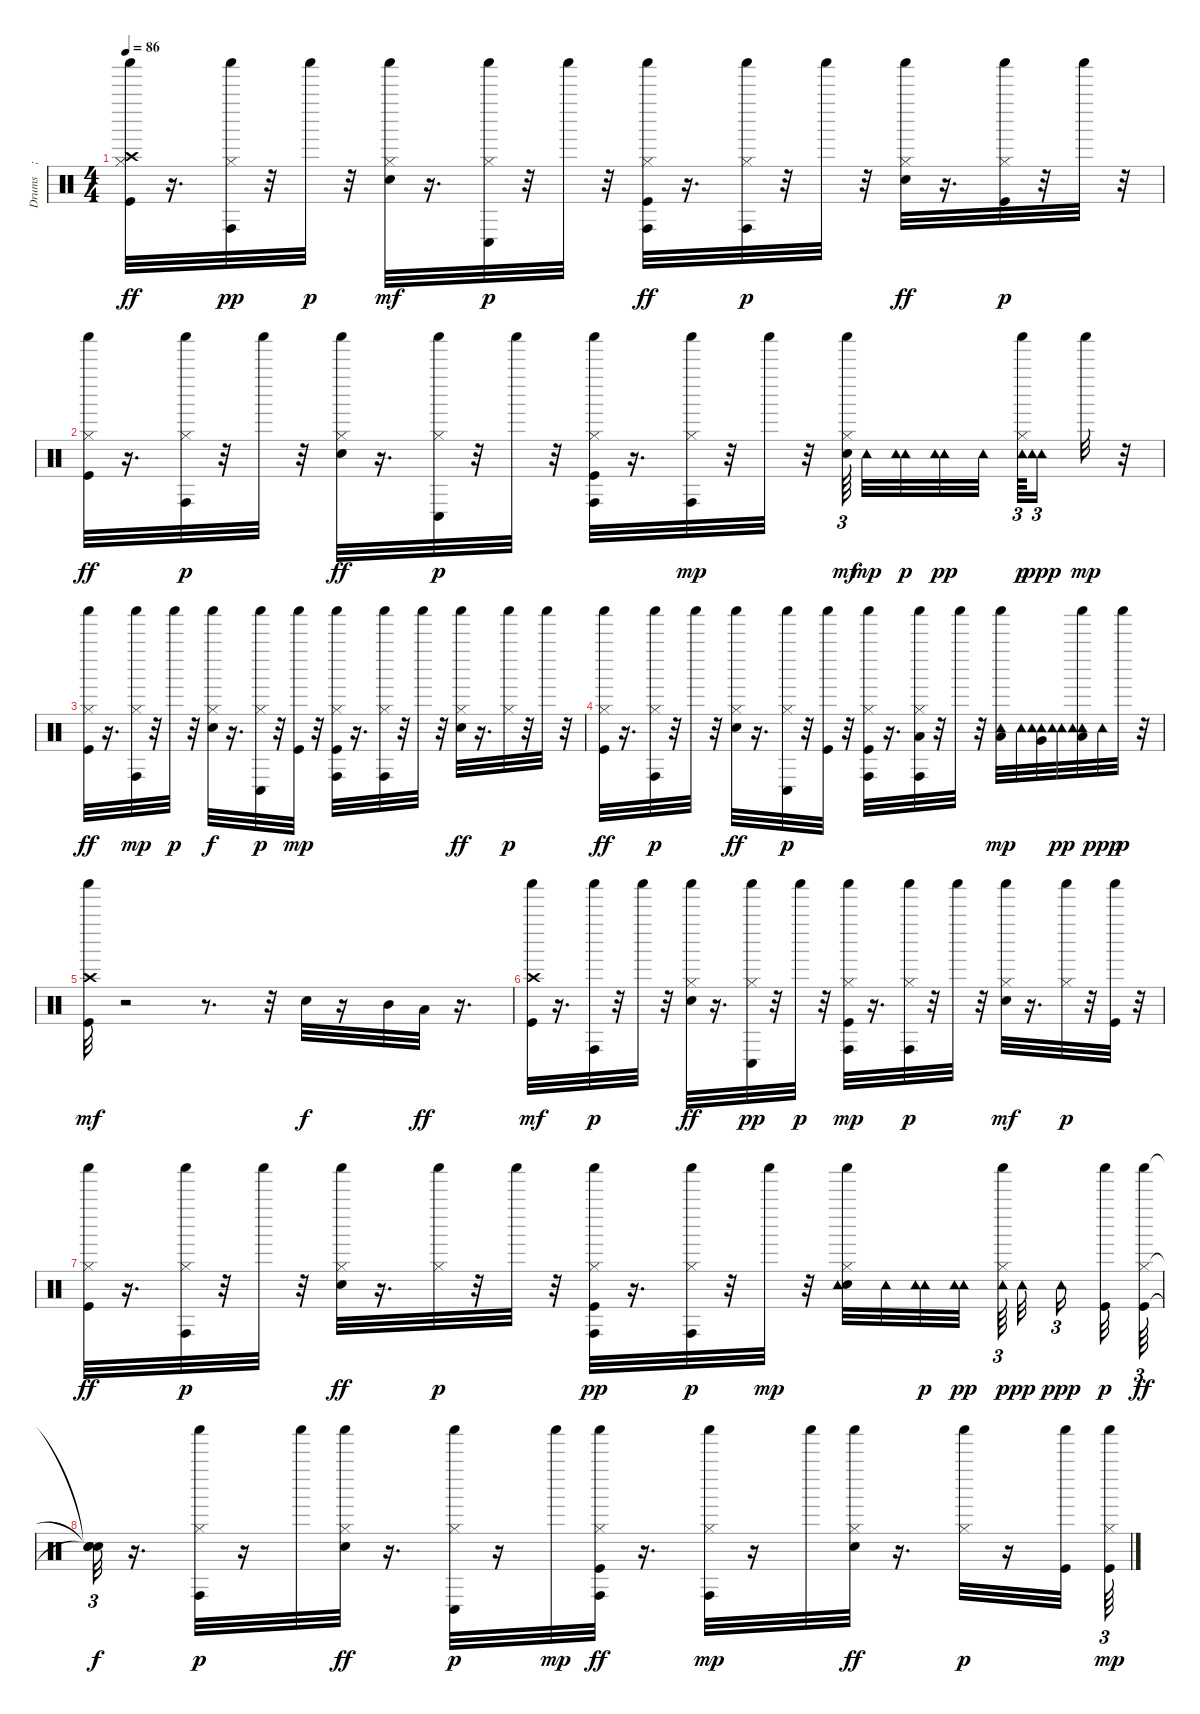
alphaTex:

\track ("Drums    ; Standard" "Drums    ;") {instrument percussion}
\staff {score}
\articulation defaults
\ts (4 4)
\tempo 86
\clef neutral
\ks c
("Crash high (hit)" "Shaker (hit)" "Kick (hit)" "Hi-Hat (closed)").32{dy ff} r.16{d} ("Hi-Hat (closed)" "Conga high (hit)" "Shaker (hit)").32{dy pp} r.32 "Shaker (hit)".32{dy p} r.32 ("Electric Snare (hit)" "Shaker (hit)" "Hi-Hat (closed)").32{dy mf} r.16{d} ("Conga low (hit)" "Shaker (hit)" "Hi-Hat (closed)").32{dy p} r.32 "Shaker (hit)".32 r.32 ("Conga high (hit)" "Kick (hit)" "Shaker (hit)" "Hi-Hat (closed)").32{dy ff} r.16{d} ("Conga high (hit)" "Shaker (hit)" "Hi-Hat (closed)").32{dy p} r.32 "Shaker (hit)".32 r.32 ("Electric Snare (hit)" "Shaker (hit)" "Hi-Hat (closed)").32{dy ff} r.16{d} ("Kick (hit)" "Shaker (hit)" "Hi-Hat (closed)").32{dy p} r.32 "Shaker (hit)".32 r.32 |
("Kick (hit)" "Shaker (hit)" "Hi-Hat (closed)").32{dy ff} r.16{d} ("Shaker (hit)" "Conga high (hit)" "Hi-Hat (closed)").32{dy p} r.32 "Shaker (hit)".32 r.32 ("Electric Snare (hit)" "Shaker (hit)" "Hi-Hat (closed)").32{dy ff} r.16{d} ("Conga low (hit)" "Shaker (hit)" "Hi-Hat (closed)").32{dy p} r.32 "Shaker (hit)".32 r.32 ("Kick (hit)" "Shaker (hit)" "Conga high (hit)" "Hi-Hat (closed)").32 r.16{d} ("Shaker (hit)" "Hi-Hat (closed)" "Conga high (hit)").32{dy mp} r.32 "Shaker (hit)".32 r.32 ("Electric Snare (hit)" "Shaker (hit)" "Hi-Hat (closed)").64{tu (3 2) dy mf} "Tambourine (hit)".32{dy mp} ("Tambourine (hit)" "Tambourine (hit)").32{dy p} ("Tambourine (hit)" "Tambourine (hit)").32{dy pp} "Tambourine (hit)".32 ("Tambourine (hit)" "Hi-Hat (closed)" "Shaker (hit)").64{tu (3 2) dy p} ("Tambourine (hit)" "Tambourine (hit)").16{tu (3 2) dy ppp} "Shaker (hit)".32{dy mp} r.32 |
("Kick (hit)" "Shaker (hit)" "Hi-Hat (closed)").32{dy ff} r.16{d} ("Shaker (hit)" "Conga high (hit)" "Hi-Hat (closed)").32{dy mp} r.32 "Shaker (hit)".32{dy p} r.32 ("Electric Snare (hit)" "Shaker (hit)" "Hi-Hat (closed)").32{dy f} r.16{d} ("Shaker (hit)" "Conga low (hit)" "Hi-Hat (closed)").32{dy p} r.32 ("Shaker (hit)" "Kick (hit)").32{dy mp} r.32 ("Kick (hit)" "Shaker (hit)" "Conga high (hit)" "Hi-Hat (closed)").32 r.16{d} ("Shaker (hit)" "Hi-Hat (closed)" "Conga high (hit)").32 r.32 "Shaker (hit)".32 r.32 ("Electric Snare (hit)" "Shaker (hit)" "Hi-Hat (closed)").32{dy ff} r.16{d} ("Shaker (hit)" "Hi-Hat (closed)").32{dy p} r.32 "Shaker (hit)".32 r.32 |
("Shaker (hit)" "Kick (hit)" "Hi-Hat (closed)").32{dy ff} r.16{d} ("Shaker (hit)" "Conga high (hit)" "Hi-Hat (closed)").32{dy p} r.32 "Shaker (hit)".32 r.32 ("Electric Snare (hit)" "Shaker (hit)" "Hi-Hat (closed)").32{dy ff} r.16{d} ("Shaker (hit)" "Conga low (hit)" "Hi-Hat (closed)").32{dy p} r.32 ("Shaker (hit)" "Kick (hit)").32 r.32 ("Kick (hit)" "Shaker (hit)" "Conga high (hit)" "Hi-Hat (closed)").32 r.16{d} ("Low Tom (hit)" "Shaker (hit)" "Conga high (hit)" "Hi-Hat (closed)").32 r.32 "Shaker (hit)".32 r.32 ("Low Tom (hit)" "Shaker (hit)" "Tambourine (hit)").32{dy mp} "Tambourine (hit)".32 ("Tambourine (hit)" "Tambourine (hit)" "Very Low Tom (hit)").32 ("Tambourine (hit)" "Tambourine (hit)").32{dy pp} ("Low Floor Tom (hit)" "Tambourine (hit)" "Shaker (hit)" "Tambourine (hit)").32 "Tambourine (hit)".32{dy ppp} "Shaker (hit)".32{dy p} r.32 |
("Crash high (hit)" "Shaker (hit)" "Kick (hit)").32{dy mf} r.2 r.8{d} r.32 "Electric Snare (hit)".32{dy f} r.16 "Mid Tom (hit)".32 "Low Tom (hit)".32{dy ff} r.16{d} |
("Crash high (hit)" "Kick (hit)" "Shaker (hit)").32{dy mf} r.16{d} ("Shaker (hit)" "Conga high (hit)").32{dy p} r.32 "Shaker (hit)".32 r.32 ("Shaker (hit)" "Electric Snare (hit)" "Hi-Hat (closed)").32{dy ff} r.16{d} ("Shaker (hit)" "Hi-Hat (closed)" "Conga low (hit)").32{dy pp} r.32 "Shaker (hit)".32{dy p} r.32 ("Kick (hit)" "Shaker (hit)" "Conga high (hit)" "Hi-Hat (closed)").32{dy mp} r.16{d} ("Conga high (hit)" "Shaker (hit)" "Hi-Hat (closed)").32{dy p} r.32 "Shaker (hit)".32 r.32 ("Electric Snare (hit)" "Shaker (hit)" "Hi-Hat (closed)").32{dy mf} r.16{d} ("Hi-Hat (closed)" "Shaker (hit)").32{dy p} r.32 ("Shaker (hit)" "Kick (hit)").32 r.32 |
("Kick (hit)" "Shaker (hit)" "Hi-Hat (closed)").32{dy ff} r.16{d} ("Shaker (hit)" "Hi-Hat (closed)" "Conga high (hit)").32{dy p} r.32 "Shaker (hit)".32 r.32 ("Electric Snare (hit)" "Hi-Hat (closed)" "Shaker (hit)").32{dy ff} r.16{d} ("Hi-Hat (closed)" "Shaker (hit)").32{dy p} r.32 "Shaker (hit)".32 r.32 ("Kick (hit)" "Hi-Hat (closed)" "Shaker (hit)" "Conga high (hit)").32{dy pp} r.16{d} ("Hi-Hat (closed)" "Conga high (hit)" "Shaker (hit)").32{dy p} r.32 "Shaker (hit)".32{dy mp} r.32 ("Hi-Hat (closed)" "Shaker (hit)" "Electric Snare (hit)" "Tambourine (hit)").32 "Tambourine (hit)".32 ("Tambourine (hit)" "Tambourine (hit)").32{dy p} ("Tambourine (hit)" "Tambourine (hit)").32{dy pp} ("Tambourine (hit)" "Hi-Hat (closed)" "Shaker (hit)").64{tu (3 2) dy p} "Tambourine (hit)".32{dy pp} "Tambourine (hit)".16{tu (3 2) dy ppp} ("Shaker (hit)" "Kick (hit)").32{dy p} ("Kick (hit)" "Shaker (hit)" "Hi-Hat (closed)").64{tu (3 2) dy ff} |
("Snare (hit)"{t} "Snare (hit)"{t} "Snare (hit)"{t}).32{tu (3 2) dy f} r.16{d} ("Conga high (hit)" "Shaker (hit)" "Hi-Hat (closed)").32{dy p} r.16 "Shaker (hit)".32 ("Electric Snare (hit)" "Shaker (hit)" "Hi-Hat (closed)").32{dy ff} r.16{d} ("Conga low (hit)" "Shaker (hit)" "Hi-Hat (closed)").32{dy p} r.16 "Shaker (hit)".32{dy mp} ("Kick (hit)" "Conga high (hit)" "Shaker (hit)" "Hi-Hat (closed)").32{dy ff} r.16{d} ("Conga high (hit)" "Shaker (hit)" "Hi-Hat (closed)").32{dy mp} r.16 "Shaker (hit)".32 ("Electric Snare (hit)" "Shaker (hit)" "Hi-Hat (closed)").32{dy ff} r.16{d} ("Shaker (hit)" "Hi-Hat (closed)").32{dy p} r.16 ("Shaker (hit)" "Kick (hit)").32 ("Shaker (hit)" "Kick (hit)" "Hi-Hat (closed)").64{tu (3 2) dy mp}
